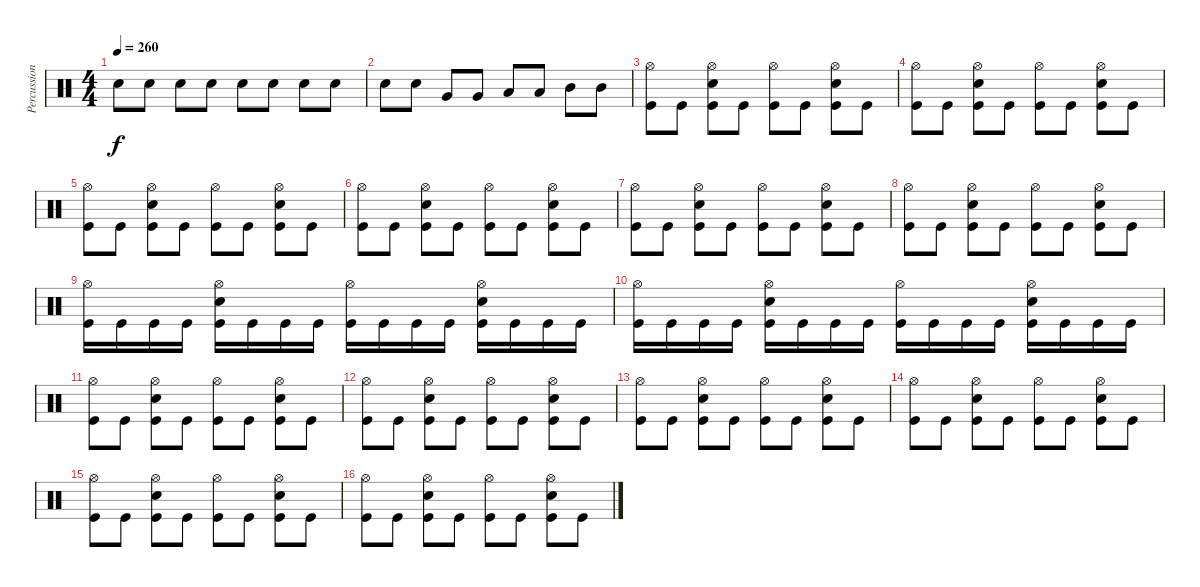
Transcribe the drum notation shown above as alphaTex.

\track ("Percussion" "Percussion") {instrument percussion}
\staff {score}
\articulation defaults
\ts (4 4)
\tempo 260
\clef neutral
\ks c "Snare (hit) 2".8{dy f} "Snare (hit) 2".8 "Snare (hit) 2".8 "Snare (hit) 2".8 "Snare (hit) 2".8 "Snare (hit) 2".8 "Snare (hit) 2".8 "Snare (hit) 2".8
|
"Snare (hit) 2".8 "Snare (hit) 2".8 "Very Low Tom (hit)".8 "Very Low Tom (hit)".8 "Low Tom (hit)".8 "Low Tom (hit)".8 "Mid Tom (hit)".8 "Mid Tom (hit)".8 |
("Kick (hit)" "Hi-Hat (open)").8 "Kick (hit)".8 ("Kick (hit)" "Snare (hit) 2" "Hi-Hat (open)").8 "Kick (hit)".8 ("Kick (hit)" "Hi-Hat (open)").8 "Kick (hit)".8 ("Kick (hit)" "Snare (hit) 2" "Hi-Hat (open)").8 "Kick (hit)".8 |
("Kick (hit)" "Hi-Hat (open)").8 "Kick (hit)".8 ("Kick (hit)" "Snare (hit) 2" "Hi-Hat (open)").8 "Kick (hit)".8 ("Kick (hit)" "Hi-Hat (open)").8 "Kick (hit)".8 ("Kick (hit)" "Snare (hit) 2" "Hi-Hat (open)").8 "Kick (hit)".8 |
("Kick (hit)" "Hi-Hat (open)").8 "Kick (hit)".8 ("Kick (hit)" "Snare (hit) 2" "Hi-Hat (open)").8 "Kick (hit)".8 ("Kick (hit)" "Hi-Hat (open)").8 "Kick (hit)".8 ("Kick (hit)" "Snare (hit) 2" "Hi-Hat (open)").8 "Kick (hit)".8 |
("Kick (hit)" "Hi-Hat (open)").8 "Kick (hit)".8 ("Kick (hit)" "Snare (hit) 2" "Hi-Hat (open)").8 "Kick (hit)".8 ("Kick (hit)" "Hi-Hat (open)").8 "Kick (hit)".8 ("Kick (hit)" "Snare (hit) 2" "Hi-Hat (open)").8 "Kick (hit)".8 |
("Kick (hit)" "Hi-Hat (open)").8 "Kick (hit)".8 ("Kick (hit)" "Snare (hit) 2" "Hi-Hat (open)").8 "Kick (hit)".8 ("Kick (hit)" "Hi-Hat (open)").8 "Kick (hit)".8 ("Kick (hit)" "Snare (hit) 2" "Hi-Hat (open)").8 "Kick (hit)".8 |
("Kick (hit)" "Hi-Hat (open)").8 "Kick (hit)".8 ("Kick (hit)" "Snare (hit) 2" "Hi-Hat (open)").8 "Kick (hit)".8 ("Kick (hit)" "Hi-Hat (open)").8 "Kick (hit)".8 ("Kick (hit)" "Snare (hit) 2" "Hi-Hat (open)").8 "Kick (hit)".8 |
("Kick (hit)" "Hi-Hat (open)").16 "Kick (hit)".16 "Kick (hit)".16 "Kick (hit)".16 ("Kick (hit)" "Snare (hit) 2" "Hi-Hat (open)").16 "Kick (hit)".16 "Kick (hit)".16 "Kick (hit)".16 ("Kick (hit)" "Hi-Hat (open)").16 "Kick (hit)".16 "Kick (hit)".16 "Kick (hit)".16 ("Kick (hit)" "Snare (hit) 2" "Hi-Hat (open)").16 "Kick (hit)".16 "Kick (hit)".16 "Kick (hit)".16 |
("Kick (hit)" "Hi-Hat (open)").16 "Kick (hit)".16 "Kick (hit)".16 "Kick (hit)".16 ("Kick (hit)" "Snare (hit) 2" "Hi-Hat (open)").16 "Kick (hit)".16 "Kick (hit)".16 "Kick (hit)".16 ("Kick (hit)" "Hi-Hat (open)").16 "Kick (hit)".16 "Kick (hit)".16 "Kick (hit)".16 ("Kick (hit)" "Snare (hit) 2" "Hi-Hat (open)").16 "Kick (hit)".16 "Kick (hit)".16 "Kick (hit)".16 |
("Kick (hit)" "Hi-Hat (open)").8 "Kick (hit)".8 ("Kick (hit)" "Snare (hit) 2" "Hi-Hat (open)").8 "Kick (hit)".8 ("Kick (hit)" "Hi-Hat (open)").8 "Kick (hit)".8 ("Kick (hit)" "Snare (hit) 2" "Hi-Hat (open)").8 "Kick (hit)".8 |
("Kick (hit)" "Hi-Hat (open)").8 "Kick (hit)".8 ("Kick (hit)" "Snare (hit) 2" "Hi-Hat (open)").8 "Kick (hit)".8 ("Kick (hit)" "Hi-Hat (open)").8 "Kick (hit)".8 ("Kick (hit)" "Snare (hit) 2" "Hi-Hat (open)").8 "Kick (hit)".8 |
("Kick (hit)" "Hi-Hat (open)").8 "Kick (hit)".8 ("Kick (hit)" "Snare (hit) 2" "Hi-Hat (open)").8 "Kick (hit)".8 ("Kick (hit)" "Hi-Hat (open)").8 "Kick (hit)".8 ("Kick (hit)" "Snare (hit) 2" "Hi-Hat (open)").8 "Kick (hit)".8 |
("Kick (hit)" "Hi-Hat (open)").8 "Kick (hit)".8 ("Kick (hit)" "Snare (hit) 2" "Hi-Hat (open)").8 "Kick (hit)".8 ("Kick (hit)" "Hi-Hat (open)").8 "Kick (hit)".8 ("Kick (hit)" "Snare (hit) 2" "Hi-Hat (open)").8 "Kick (hit)".8 |
("Kick (hit)" "Hi-Hat (open)").8 "Kick (hit)".8 ("Kick (hit)" "Snare (hit) 2" "Hi-Hat (open)").8 "Kick (hit)".8 ("Kick (hit)" "Hi-Hat (open)").8 "Kick (hit)".8 ("Kick (hit)" "Snare (hit) 2" "Hi-Hat (open)").8 "Kick (hit)".8 |
("Kick (hit)" "Hi-Hat (open)").8 "Kick (hit)".8 ("Kick (hit)" "Snare (hit) 2" "Hi-Hat (open)").8 "Kick (hit)".8 ("Kick (hit)" "Hi-Hat (open)").8 "Kick (hit)".8 ("Kick (hit)" "Snare (hit) 2" "Hi-Hat (open)").8 "Kick (hit)".8
